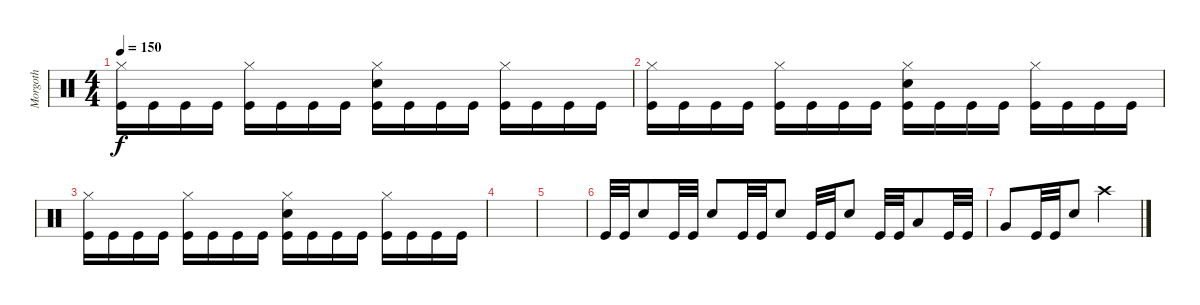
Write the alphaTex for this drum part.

\track ("Morgoth" "Morgoth") {instrument percussion}
\staff {score}
\articulation defaults
\ts (4 4)
\tempo 150
\clef neutral
\ks c
("Hi-Hat (closed)" "Kick (hit)").16{dy f} "Kick (hit)".16 "Kick (hit)".16 "Kick (hit)".16 ("Hi-Hat (closed)" "Kick (hit)").16 "Kick (hit)".16 "Kick (hit)".16 "Kick (hit)".16 ("Hi-Hat (closed)" "Electric Snare (hit)" "Kick (hit)").16 "Kick (hit)".16 "Kick (hit)".16 "Kick (hit)".16 ("Hi-Hat (closed)" "Kick (hit)").16 "Kick (hit)".16 "Kick (hit)".16 "Kick (hit)".16 |
("Hi-Hat (closed)" "Kick (hit)").16 "Kick (hit)".16 "Kick (hit)".16 "Kick (hit)".16 ("Hi-Hat (closed)" "Kick (hit)").16 "Kick (hit)".16 "Kick (hit)".16 "Kick (hit)".16 ("Hi-Hat (closed)" "Electric Snare (hit)" "Kick (hit)").16 "Kick (hit)".16 "Kick (hit)".16 "Kick (hit)".16 ("Hi-Hat (closed)" "Kick (hit)").16 "Kick (hit)".16 "Kick (hit)".16 "Kick (hit)".16 |
("Hi-Hat (closed)" "Kick (hit)").16 "Kick (hit)".16 "Kick (hit)".16 "Kick (hit)".16 ("Hi-Hat (closed)" "Kick (hit)").16 "Kick (hit)".16 "Kick (hit)".16 "Kick (hit)".16 ("Hi-Hat (closed)" "Electric Snare (hit)" "Kick (hit)").16 "Kick (hit)".16 "Kick (hit)".16 "Kick (hit)".16 ("Hi-Hat (closed)" "Kick (hit)").16 "Kick (hit)".16 "Kick (hit)".16 "Kick (hit)".16 |
|
|
"Kick (hit)".32 "Kick (hit)".32 "Electric Snare (hit)".8 "Kick (hit)".32 "Kick (hit)".32 "Electric Snare (hit)".8 "Kick (hit)".32 "Kick (hit)".32 "Electric Snare (hit)".8 "Kick (hit)".32 "Kick (hit)".32 "Electric Snare (hit)".8 "Kick (hit)".32 "Kick (hit)".32 "Low Tom (hit)".8 "Kick (hit)".32 "Kick (hit)".32 |
"Very Low Tom (hit)".8 "Kick (hit)".32 "Kick (hit)".32 "Electric Snare (hit)".8 "Crash high (hit)".4
